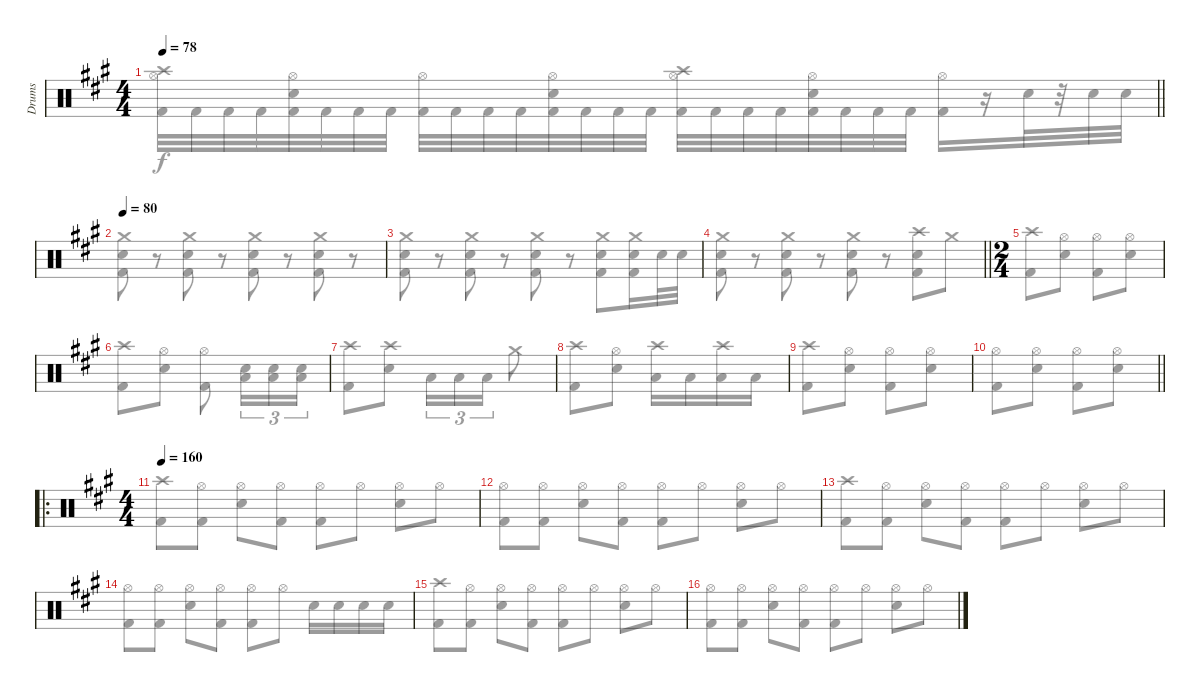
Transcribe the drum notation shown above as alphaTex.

\track ("Drums" "Drums") {instrument percussion}
\staff {score}
\articulation defaults
\voice
\ts (4 4)
\tempo 78
\clef neutral
\barLineRight lightlight
\ks f#minor
|
\tempo 80
|
|
\barLineRight lightlight
|
\ts (2 4)
|
|
|
|
|
\barLineRight lightlight
|
\ro
\ts (4 4)
\tempo 160
|
|
|
|
|
\voice
\clef neutral
\barLineRight lightlight
\ks f#minor
("Kick (hit) 2" "Crash high (hit)" "Hi-Hat (open)").32{dy f} "Kick (hit) 2".32 "Kick (hit) 2".32 "Kick (hit) 2".32 ("Kick (hit) 2" "Electric Snare (hit)" "Hi-Hat (open)").32 "Kick (hit) 2".32 "Kick (hit) 2".32 "Kick (hit) 2".32 ("Kick (hit) 2" "Hi-Hat (open)").32 "Kick (hit) 2".32 "Kick (hit) 2".32 "Kick (hit) 2".32 ("Kick (hit) 2" "Electric Snare (hit)" "Hi-Hat (open)").32 "Kick (hit) 2".32 "Kick (hit) 2".32 "Kick (hit) 2".32 ("Kick (hit) 2" "Crash high (hit)" "Hi-Hat (open)").32 "Kick (hit) 2".32 "Kick (hit) 2".32 "Kick (hit) 2".32 ("Kick (hit) 2" "Electric Snare (hit)" "Hi-Hat (open)").32 "Kick (hit) 2".32 "Kick (hit) 2".32 "Kick (hit) 2".32 ("Kick (hit) 2" "Hi-Hat (open)").16 r.16 "Electric Snare (hit)".32 r.32 "Electric Snare (hit)".32 "Electric Snare (hit)".32 |
("Kick (hit) 2" "Electric Snare (hit)" "Crash medium (hit)").8 r.8 ("Kick (hit) 2" "Electric Snare (hit)" "Crash medium (hit)").8 r.8 ("Kick (hit) 2" "Electric Snare (hit)" "Crash medium (hit)").8 r.8 ("Kick (hit) 2" "Electric Snare (hit)" "Crash medium (hit)").8 r.8 |
("Kick (hit) 2" "Electric Snare (hit)" "Crash medium (hit)").8 r.8 ("Kick (hit) 2" "Electric Snare (hit)" "Crash medium (hit)").8 r.8 ("Kick (hit) 2" "Electric Snare (hit)" "Crash medium (hit)").8 r.8 ("Kick (hit) 2" "Electric Snare (hit)" "Crash medium (hit)").8 ("Kick (hit) 2" "Electric Snare (hit)" "Crash medium (hit)").16 "Electric Snare (hit)".32 "Electric Snare (hit)".32 |
\barLineRight lightlight
("Kick (hit) 2" "Electric Snare (hit)" "Crash medium (hit)").8 r.8 ("Kick (hit) 2" "Electric Snare (hit)" "Crash medium (hit)").8 r.8 ("Kick (hit) 2" "Electric Snare (hit)" "Crash medium (hit)").8 r.8 ("Kick (hit) 2" "Electric Snare (hit)" "Crash high (hit)").8 "Crash medium (hit)".8 |
("Kick (hit) 2" "Crash high (hit)").8 ("Electric Snare (hit)" "Hi-Hat (open)").8 ("Kick (hit) 2" "Hi-Hat (open)").8 ("Electric Snare (hit)" "Hi-Hat (open)").8 |
("Kick (hit) 2" "Crash high (hit)").8 ("Electric Snare (hit)" "Hi-Hat (open)").8 ("Kick (hit) 2" "Hi-Hat (open)").8 ("Low Floor Tom (hit)" "Electric Snare (hit)").16{tu (3 2)} ("Low Floor Tom (hit)" "Electric Snare (hit)").16{tu (3 2)} ("Low Floor Tom (hit)" "Electric Snare (hit)").16{tu (3 2)} |
("Kick (hit) 2" "Crash high (hit)").8 ("Electric Snare (hit)" "Crash high (hit)").8 "Low Floor Tom (hit)".16{tu (3 2)} "Low Floor Tom (hit)".16{tu (3 2)} "Low Floor Tom (hit)".16{tu (3 2)} "Crash medium (hit)".8 |
("Kick (hit) 2" "Crash high (hit)").8 ("Electric Snare (hit)" "Hi-Hat (open)").8 ("Low Floor Tom (hit)" "Crash high (hit)").16 "Low Floor Tom (hit)".16 ("Low Floor Tom (hit)" "Crash high (hit)").16 "Low Floor Tom (hit)".16 |
("Kick (hit) 2" "Crash high (hit)").8 ("Electric Snare (hit)" "Hi-Hat (open)").8 ("Kick (hit) 2" "Hi-Hat (open)").8 ("Electric Snare (hit)" "Hi-Hat (open)").8 |
\barLineRight lightlight
("Kick (hit) 2" "Hi-Hat (open)").8 ("Electric Snare (hit)" "Hi-Hat (open)").8 ("Kick (hit) 2" "Hi-Hat (open)").8 ("Electric Snare (hit)" "Hi-Hat (open)").8 |
("Kick (hit) 2" "Crash high (hit)").8 ("Kick (hit) 2" "Hi-Hat (open)").8 ("Electric Snare (hit)" "Hi-Hat (open)").8 ("Kick (hit) 2" "Hi-Hat (open)").8 ("Kick (hit) 2" "Hi-Hat (open)").8 "Hi-Hat (open)".8 ("Electric Snare (hit)" "Hi-Hat (open)").8 "Hi-Hat (open)".8 |
("Kick (hit) 2" "Hi-Hat (open)").8 ("Kick (hit) 2" "Hi-Hat (open)").8 ("Electric Snare (hit)" "Hi-Hat (open)").8 ("Kick (hit) 2" "Hi-Hat (open)").8 ("Kick (hit) 2" "Hi-Hat (open)").8 "Hi-Hat (open)".8 ("Electric Snare (hit)" "Hi-Hat (open)").8 "Hi-Hat (open)".8 |
("Kick (hit) 2" "Crash high (hit)").8 ("Kick (hit) 2" "Hi-Hat (open)").8 ("Electric Snare (hit)" "Hi-Hat (open)").8 ("Kick (hit) 2" "Hi-Hat (open)").8 ("Kick (hit) 2" "Hi-Hat (open)").8 "Hi-Hat (open)".8 ("Electric Snare (hit)" "Hi-Hat (open)").8 "Hi-Hat (open)".8 |
("Kick (hit) 2" "Hi-Hat (open)").8 ("Kick (hit) 2" "Hi-Hat (open)").8 ("Electric Snare (hit)" "Hi-Hat (open)").8 ("Kick (hit) 2" "Hi-Hat (open)").8 ("Kick (hit) 2" "Hi-Hat (open)").8 "Hi-Hat (open)".8 "Electric Snare (hit)".16 "Electric Snare (hit)".16 "Electric Snare (hit)".16 "Electric Snare (hit)".16 |
("Kick (hit) 2" "Crash high (hit)").8 ("Kick (hit) 2" "Hi-Hat (open)").8 ("Electric Snare (hit)" "Hi-Hat (open)").8 ("Kick (hit) 2" "Hi-Hat (open)").8 ("Kick (hit) 2" "Hi-Hat (open)").8 "Hi-Hat (open)".8 ("Electric Snare (hit)" "Hi-Hat (open)").8 "Hi-Hat (open)".8 |
("Kick (hit) 2" "Hi-Hat (open)").8 ("Kick (hit) 2" "Hi-Hat (open)").8 ("Electric Snare (hit)" "Hi-Hat (open)").8 ("Kick (hit) 2" "Hi-Hat (open)").8 ("Kick (hit) 2" "Hi-Hat (open)").8 "Hi-Hat (open)".8 ("Electric Snare (hit)" "Hi-Hat (open)").8 "Hi-Hat (open)".8
